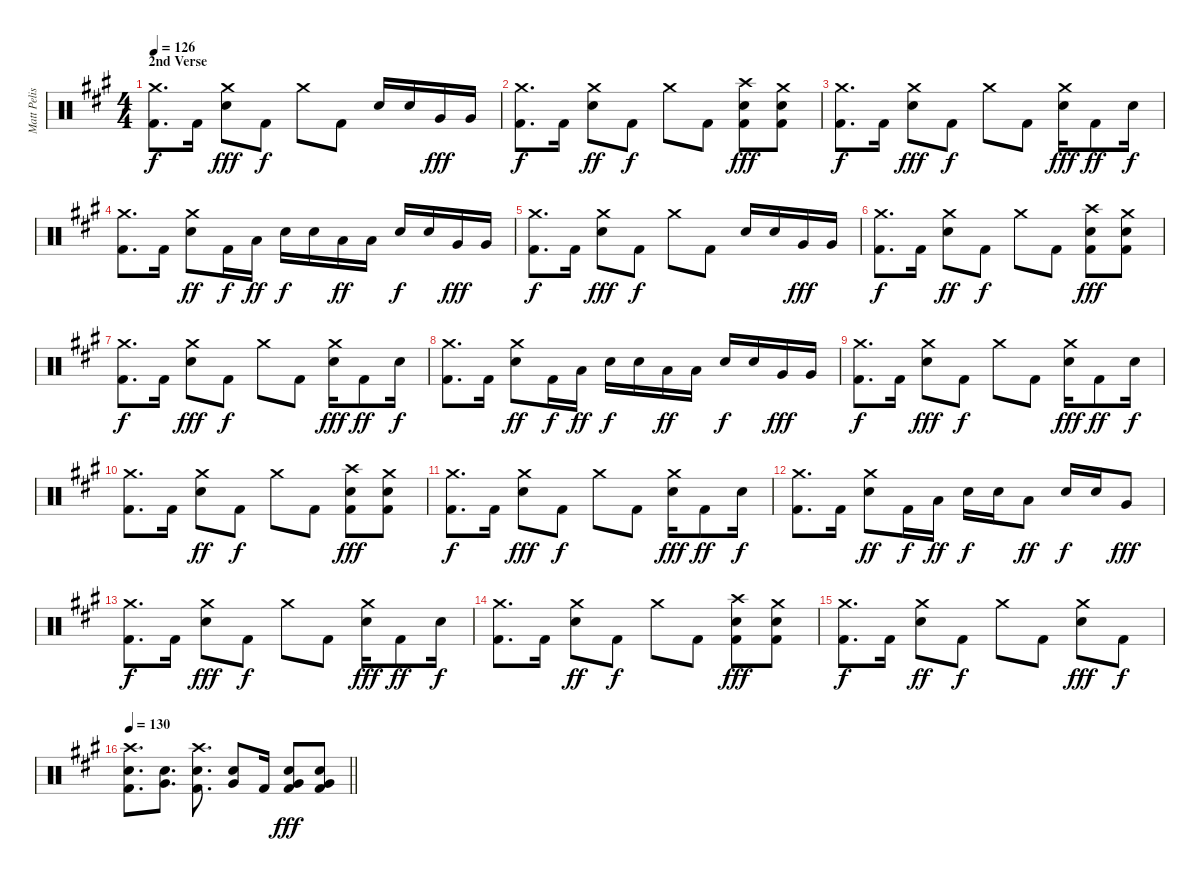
\track ("Matt Pelissier" "Matt Pelis") {instrument percussion}
\staff {score}
\articulation defaults
\ts (4 4)
\section ("" "2nd Verse")
\tempo 126
\clef neutral
\ks a
("Crash medium (hit)" "Kick (hit) 2").8{d dy f} "Kick (hit) 2".16 ("Crash medium (hit)" "Snare (hit) 2").8{dy fff} "Kick (hit) 2".8{dy f} "Crash medium (hit)".8 "Kick (hit) 2".8 "Snare (hit) 2".16 "Snare (hit) 2".16 "Very Low Tom (hit)".16{dy fff} "Very Low Tom (hit)".16 |
("Crash medium (hit)" "Kick (hit) 2").8{d dy f} "Kick (hit) 2".16 ("Crash medium (hit)" "Snare (hit) 2").8{dy ff} "Kick (hit) 2".8{dy f} "Crash medium (hit)".8 "Kick (hit) 2".8 ("Crash high (hit)" "Snare (hit) 2" "Kick (hit) 2").8{dy fff} ("Crash medium (hit)" "Snare (hit) 2" "Kick (hit) 2").8 |
("Crash medium (hit)" "Kick (hit) 2").8{d dy f} "Kick (hit) 2".16 ("Crash medium (hit)" "Snare (hit) 2").8{dy fff} "Kick (hit) 2".8{dy f} "Crash medium (hit)".8 "Kick (hit) 2".8 ("Crash medium (hit)" "Snare (hit) 2").16{dy fff} "Kick (hit) 2".8{dy ff} "Snare (hit) 2".16{dy f} |
("Crash medium (hit)" "Kick (hit) 2").8{d} "Kick (hit) 2".16 ("Crash medium (hit)" "Snare (hit) 2").8{dy ff} "Kick (hit) 2".16{dy f} "Low Tom (hit)".16{dy ff} "Snare (hit) 2".16{dy f} "Snare (hit) 2".16 "Low Tom (hit)".16{dy ff} "Low Tom (hit)".16 "Snare (hit) 2".16{dy f} "Snare (hit) 2".16 "Very Low Tom (hit)".16{dy fff} "Very Low Tom (hit)".16 |
("Crash medium (hit)" "Kick (hit) 2").8{d dy f} "Kick (hit) 2".16 ("Crash medium (hit)" "Snare (hit) 2").8{dy fff} "Kick (hit) 2".8{dy f} "Crash medium (hit)".8 "Kick (hit) 2".8 "Snare (hit) 2".16 "Snare (hit) 2".16 "Very Low Tom (hit)".16{dy fff} "Very Low Tom (hit)".16 |
("Crash medium (hit)" "Kick (hit) 2").8{d dy f} "Kick (hit) 2".16 ("Crash medium (hit)" "Snare (hit) 2").8{dy ff} "Kick (hit) 2".8{dy f} "Crash medium (hit)".8 "Kick (hit) 2".8 ("Crash high (hit)" "Snare (hit) 2" "Kick (hit) 2").8{dy fff} ("Crash medium (hit)" "Snare (hit) 2" "Kick (hit) 2").8 |
("Crash medium (hit)" "Kick (hit) 2").8{d dy f} "Kick (hit) 2".16 ("Crash medium (hit)" "Snare (hit) 2").8{dy fff} "Kick (hit) 2".8{dy f} "Crash medium (hit)".8 "Kick (hit) 2".8 ("Crash medium (hit)" "Snare (hit) 2").16{dy fff} "Kick (hit) 2".8{dy ff} "Snare (hit) 2".16{dy f} |
("Crash medium (hit)" "Kick (hit) 2").8{d} "Kick (hit) 2".16 ("Crash medium (hit)" "Snare (hit) 2").8{dy ff} "Kick (hit) 2".16{dy f} "Low Tom (hit)".16{dy ff} "Snare (hit) 2".16{dy f} "Snare (hit) 2".16 "Low Tom (hit)".16{dy ff} "Low Tom (hit)".16 "Snare (hit) 2".16{dy f} "Snare (hit) 2".16 "Very Low Tom (hit)".16{dy fff} "Very Low Tom (hit)".16 |
("Crash medium (hit)" "Kick (hit) 2").8{d dy f} "Kick (hit) 2".16 ("Crash medium (hit)" "Snare (hit) 2").8{dy fff} "Kick (hit) 2".8{dy f} "Crash medium (hit)".8 "Kick (hit) 2".8 ("Crash medium (hit)" "Snare (hit) 2").16{dy fff} "Kick (hit) 2".8{dy ff} "Snare (hit) 2".16{dy f} |
("Crash medium (hit)" "Kick (hit) 2").8{d} "Kick (hit) 2".16 ("Crash medium (hit)" "Snare (hit) 2").8{dy ff} "Kick (hit) 2".8{dy f} "Crash medium (hit)".8 "Kick (hit) 2".8 ("Crash high (hit)" "Snare (hit) 2" "Kick (hit) 2").8{dy fff} ("Crash medium (hit)" "Snare (hit) 2" "Kick (hit) 2").8 |
("Crash medium (hit)" "Kick (hit) 2").8{d dy f} "Kick (hit) 2".16 ("Crash medium (hit)" "Snare (hit) 2").8{dy fff} "Kick (hit) 2".8{dy f} "Crash medium (hit)".8 "Kick (hit) 2".8 ("Crash medium (hit)" "Snare (hit) 2").16{dy fff} "Kick (hit) 2".8{dy ff} "Snare (hit) 2".16{dy f} |
("Crash medium (hit)" "Kick (hit) 2").8{d} "Kick (hit) 2".16 ("Crash medium (hit)" "Snare (hit) 2").8{dy ff} "Kick (hit) 2".16{dy f} "Low Tom (hit)".16{dy ff} "Snare (hit) 2".16{dy f} "Snare (hit) 2".16 "Low Tom (hit)".8{dy ff} "Snare (hit) 2".16{dy f} "Snare (hit) 2".16 "Very Low Tom (hit)".8{dy fff} |
("Crash medium (hit)" "Kick (hit) 2").8{d dy f} "Kick (hit) 2".16 ("Crash medium (hit)" "Snare (hit) 2").8{dy fff} "Kick (hit) 2".8{dy f} "Crash medium (hit)".8 "Kick (hit) 2".8 ("Crash medium (hit)" "Snare (hit) 2").16{dy fff} "Kick (hit) 2".8{dy ff} "Snare (hit) 2".16{dy f} |
("Crash medium (hit)" "Kick (hit) 2").8{d} "Kick (hit) 2".16 ("Crash medium (hit)" "Snare (hit) 2").8{dy ff} "Kick (hit) 2".8{dy f} "Crash medium (hit)".8 "Kick (hit) 2".8 ("Crash high (hit)" "Snare (hit) 2" "Kick (hit) 2").8{dy fff} ("Crash medium (hit)" "Snare (hit) 2" "Kick (hit) 2").8 |
("Crash medium (hit)" "Kick (hit) 2").8{d dy f} "Kick (hit) 2".16 ("Crash medium (hit)" "Snare (hit) 2").8{dy ff} "Kick (hit) 2".8{dy f} "Crash medium (hit)".8 "Kick (hit) 2".8 ("Crash medium (hit)" "Snare (hit) 2").8{dy fff} "Kick (hit) 2".8{dy f} |
\tempo 130
\barLineRight lightlight
("Crash high (hit)" "Snare (hit) 2" "Kick (hit) 2").8{d} ("Snare (hit) 2" "Very Low Tom (hit)").8{d} ("Crash high (hit)" "Snare (hit) 2" "Kick (hit) 2").8{d} ("Snare (hit) 2" "Very Low Tom (hit)").8 "Kick (hit) 2".16 ("Snare (hit) 2" "Very Low Tom (hit)" "Kick (hit) 2").8{dy fff} ("Snare (hit) 2" "Very Low Tom (hit)" "Kick (hit) 2").8
